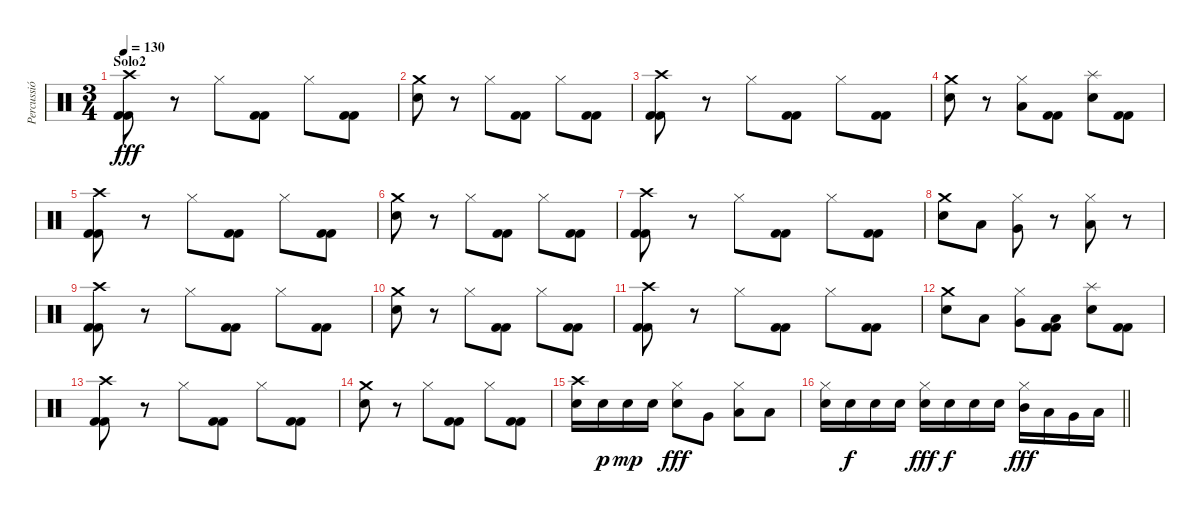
\track ("Percussió" "Percussió") {instrument percussion}
\staff {score}
\articulation defaults
\ts (3 4)
\section ("" "Solo2")
\tempo 130
\clef neutral
\ks c
("Crash high (hit)" "Kick (hit) 2" "Kick (hit) 2").8{dy fff} r.8 "Hi-Hat (closed)".8 ("Kick (hit) 2" "Kick (hit) 2").8 "Hi-Hat (closed)".8 ("Kick (hit) 2" "Kick (hit) 2").8 |
("Crash medium (hit)" "Snare (hit) 2").8 r.8 "Hi-Hat (closed)".8 ("Kick (hit) 2" "Kick (hit) 2").8 "Hi-Hat (closed)".8 ("Kick (hit) 2" "Kick (hit) 2").8 |
("Crash high (hit)" "Kick (hit) 2" "Kick (hit) 2").8 r.8 "Hi-Hat (closed)".8 ("Kick (hit) 2" "Kick (hit) 2").8 "Hi-Hat (closed)".8 ("Kick (hit) 2" "Kick (hit) 2").8 |
("Crash medium (hit)" "Snare (hit) 2").8 r.8 ("Hi-Hat (closed)" "Low Floor Tom (hit)").8 ("Kick (hit) 2" "Kick (hit) 2").8 ("Splash (hit)" "Snare (hit) 2").8 ("Kick (hit) 2" "Kick (hit) 2").8 |
("Crash high (hit)" "Kick (hit) 2" "Kick (hit) 2").8 r.8 "Hi-Hat (closed)".8 ("Kick (hit) 2" "Kick (hit) 2").8 "Hi-Hat (closed)".8 ("Kick (hit) 2" "Kick (hit) 2").8 |
("Crash medium (hit)" "Snare (hit) 2").8 r.8 "Hi-Hat (closed)".8 ("Kick (hit) 2" "Kick (hit) 2").8 "Hi-Hat (closed)".8 ("Kick (hit) 2" "Kick (hit) 2").8 |
("Crash high (hit)" "Kick (hit) 2" "Kick (hit) 2").8 r.8 "Hi-Hat (closed)".8 ("Kick (hit) 2" "Kick (hit) 2").8 "Hi-Hat (closed)".8 ("Kick (hit) 2" "Kick (hit) 2").8 |
("Crash medium (hit)" "Snare (hit) 2").8 "Low Tom (hit)".8 ("Hi-Hat (closed)" "Very Low Tom (hit)").8 r.8 ("Hi-Hat (closed)" "Low Floor Tom (hit)").8 r.8 |
("Crash high (hit)" "Kick (hit) 2" "Kick (hit) 2").8 r.8 "Hi-Hat (closed)".8 ("Kick (hit) 2" "Kick (hit) 2").8 "Hi-Hat (closed)".8 ("Kick (hit) 2" "Kick (hit) 2").8 |
("Crash medium (hit)" "Snare (hit) 2").8 r.8 "Hi-Hat (closed)".8 ("Kick (hit) 2" "Kick (hit) 2").8 "Hi-Hat (closed)".8 ("Kick (hit) 2" "Kick (hit) 2").8 |
("Crash high (hit)" "Kick (hit) 2" "Kick (hit) 2").8 r.8 "Hi-Hat (closed)".8 ("Kick (hit) 2" "Kick (hit) 2").8 "Hi-Hat (closed)".8 ("Kick (hit) 2" "Kick (hit) 2").8 |
("Crash medium (hit)" "Snare (hit) 2").8 "Low Tom (hit)".8 ("Hi-Hat (closed)" "Very Low Tom (hit)").8 ("Low Floor Tom (hit)" "Kick (hit) 2" "Kick (hit) 2").8 ("Splash (hit)" "Snare (hit) 2").8 ("Kick (hit) 2" "Kick (hit) 2").8 |
("Crash high (hit)" "Kick (hit) 2" "Kick (hit) 2").8 r.8 "Hi-Hat (closed)".8 ("Kick (hit) 2" "Kick (hit) 2").8 "Hi-Hat (closed)".8 ("Kick (hit) 2" "Kick (hit) 2").8 |
("Crash medium (hit)" "Snare (hit) 2").8 r.8 "Hi-Hat (closed)".8 ("Kick (hit) 2" "Kick (hit) 2").8 "Hi-Hat (closed)".8 ("Kick (hit) 2" "Kick (hit) 2").8 |
("Crash high (hit)" "Electric Snare (hit)").16 "Snare (hit) 2".16{dy p} "Snare (hit) 2".16{dy mp} "Snare (hit) 2".16 ("Hi-Hat (closed)" "Snare (hit) 2").8{dy fff} "Very Low Tom (hit)".8 ("Hi-Hat (closed)" "Low Tom (hit)").8 "Low Floor Tom (hit)".8 |
\barLineRight lightlight
("Hi-Hat (closed)" "Electric Snare (hit)").16 "Snare (hit) 2".16{dy f} "Snare (hit) 2".16 "Snare (hit) 2".16 ("Hi-Hat (closed)" "Electric Snare (hit)").16{dy fff} "Snare (hit) 2".16{dy f} "Snare (hit) 2".16 "Snare (hit) 2".16 ("Hi-Hat (closed)" "Mid Tom (hit)").16{dy fff} "Low Tom (hit)".16 "Very Low Tom (hit)".16 "Low Floor Tom (hit)".16
